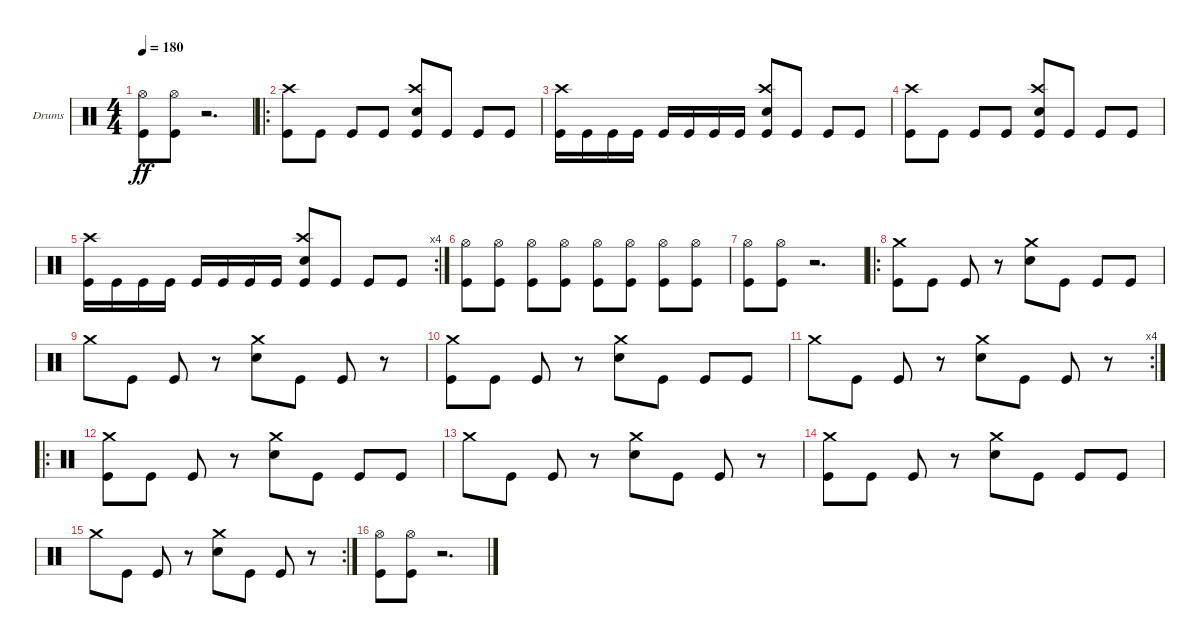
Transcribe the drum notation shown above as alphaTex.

\bracketExtendMode groupsimilarinstruments
\firstSystemTrackNameOrientation horizontal
\otherSystemsTrackNameOrientation horizontal
\track ("Drumkit" "Drums") {instrument percussion}
\staff {score}
\articulation defaults
\ts (4 4)
\tempo 180
\clef neutral
\ks c
("Kick (hit)" "Hi-Hat (open)").8{dy ff} ("Kick (hit)" "Hi-Hat (open)").8 r.2{d} |
\ro
("Kick (hit)" "Crash high (hit)").8 "Kick (hit)".8 "Kick (hit)".8 "Kick (hit)".8 ("Kick (hit)" "Crash high (hit)" "Snare (hit) 2").8 "Kick (hit)".8 "Kick (hit)".8 "Kick (hit)".8 |
("Kick (hit)" "Crash high (hit)").16 "Kick (hit)".16 "Kick (hit)".16 "Kick (hit)".16 "Kick (hit)".16 "Kick (hit)".16 "Kick (hit)".16 "Kick (hit)".16 ("Kick (hit)" "Crash high (hit)" "Snare (hit) 2").8 "Kick (hit)".8 "Kick (hit)".8 "Kick (hit)".8 |
("Kick (hit)" "Crash high (hit)").8 "Kick (hit)".8 "Kick (hit)".8 "Kick (hit)".8 ("Kick (hit)" "Crash high (hit)" "Snare (hit) 2").8 "Kick (hit)".8 "Kick (hit)".8 "Kick (hit)".8 |
\rc 4
("Kick (hit)" "Crash high (hit)").16 "Kick (hit)".16 "Kick (hit)".16 "Kick (hit)".16 "Kick (hit)".16 "Kick (hit)".16 "Kick (hit)".16 "Kick (hit)".16 ("Kick (hit)" "Crash high (hit)" "Snare (hit) 2").8 "Kick (hit)".8 "Kick (hit)".8 "Kick (hit)".8 |
("Kick (hit)" "Hi-Hat (open)").8 ("Kick (hit)" "Hi-Hat (open)").8 ("Kick (hit)" "Hi-Hat (open)").8 ("Kick (hit)" "Hi-Hat (open)").8 ("Kick (hit)" "Hi-Hat (open)").8 ("Kick (hit)" "Hi-Hat (open)").8 ("Kick (hit)" "Hi-Hat (open)").8 ("Kick (hit)" "Hi-Hat (open)").8 |
("Kick (hit)" "Hi-Hat (open)").8 ("Kick (hit)" "Hi-Hat (open)").8 r.2{d} |
\ro
("Crash medium (hit)" "Kick (hit)").8 "Kick (hit)".8 "Kick (hit)".8 r.8 ("Crash medium (hit)" "Snare (hit) 2").8 "Kick (hit)".8 "Kick (hit)".8 "Kick (hit)".8 |
"Crash medium (hit)".8 "Kick (hit)".8 "Kick (hit)".8 r.8 ("Crash medium (hit)" "Snare (hit) 2").8 "Kick (hit)".8 "Kick (hit)".8 r.8 |
("Crash medium (hit)" "Kick (hit)").8 "Kick (hit)".8 "Kick (hit)".8 r.8 ("Crash medium (hit)" "Snare (hit) 2").8 "Kick (hit)".8 "Kick (hit)".8 "Kick (hit)".8 |
\rc 4 "Crash medium (hit)".8 "Kick (hit)".8 "Kick (hit)".8
r.8 ("Crash medium (hit)" "Snare (hit) 2").8 "Kick (hit)".8 "Kick (hit)".8 r.8 |
\ro
("Crash medium (hit)" "Kick (hit)").8 "Kick (hit)".8 "Kick (hit)".8 r.8 ("Crash medium (hit)" "Snare (hit) 2").8 "Kick (hit)".8 "Kick (hit)".8 "Kick (hit)".8 |
"Crash medium (hit)".8 "Kick (hit)".8 "Kick (hit)".8 r.8 ("Crash medium (hit)" "Snare (hit) 2").8 "Kick (hit)".8 "Kick (hit)".8 r.8 |
("Crash medium (hit)" "Kick (hit)").8 "Kick (hit)".8 "Kick (hit)".8 r.8 ("Crash medium (hit)" "Snare (hit) 2").8 "Kick (hit)".8 "Kick (hit)".8 "Kick (hit)".8 |
\rc 2 "Crash medium (hit)".8 "Kick (hit)".8 "Kick (hit)".8
r.8 ("Crash medium (hit)" "Snare (hit) 2").8 "Kick (hit)".8 "Kick (hit)".8 r.8 |
("Kick (hit)" "Hi-Hat (open)").8 ("Kick (hit)" "Hi-Hat (open)").8 r.2{d}
